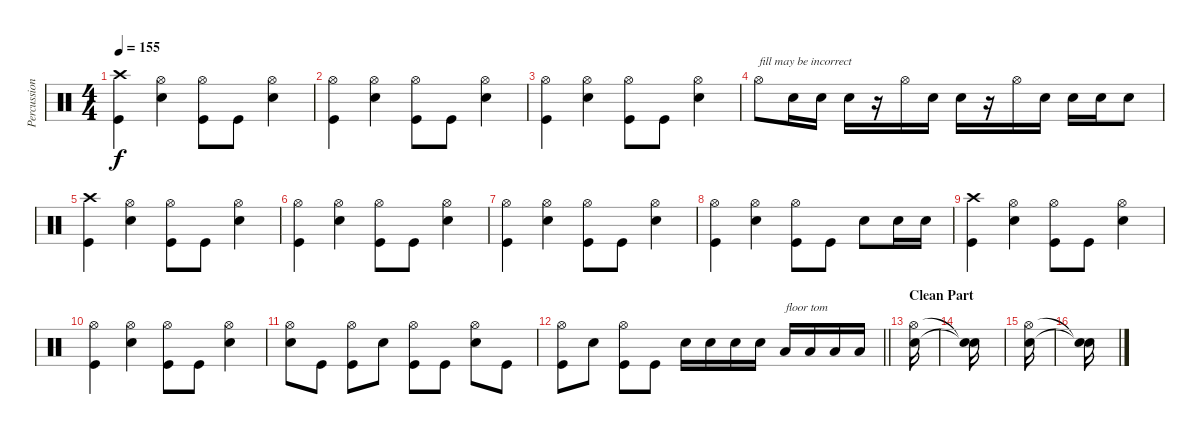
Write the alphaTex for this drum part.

\track ("Percussion" "Percussion") {instrument percussion}
\staff {score}
\articulation defaults
\ts (4 4)
\tempo 155
\clef neutral
\ks c
("Crash high (hit)" "Kick (hit)").4{dy f} ("Hi-Hat (open)" "Electric Snare (hit)").4 ("Hi-Hat (open)" "Kick (hit)").8 "Kick (hit)".8 ("Hi-Hat (open)" "Electric Snare (hit)").4 |
("Hi-Hat (open)" "Kick (hit)").4 ("Hi-Hat (open)" "Electric Snare (hit)").4 ("Hi-Hat (open)" "Kick (hit)").8 "Kick (hit)".8 ("Hi-Hat (open)" "Electric Snare (hit)").4 |
("Hi-Hat (open)" "Kick (hit)").4 ("Hi-Hat (open)" "Electric Snare (hit)").4 ("Hi-Hat (open)" "Kick (hit)").8 "Kick (hit)".8 ("Hi-Hat (open)" "Electric Snare (hit)").4 |
"Hi-Hat (open)".8{txt "fill may be incorrect"} "Electric Snare (hit)".16 "Electric Snare (hit)".16 "Electric Snare (hit)".16 r.16 "Hi-Hat (open)".16 "Electric Snare (hit)".16 "Electric Snare (hit)".16 r.16 "Hi-Hat (open)".16 "Electric Snare (hit)".16 "Electric Snare (hit)".16 "Electric Snare (hit)".16 "Electric Snare (hit)".8 |
("Crash high (hit)" "Kick (hit)").4 ("Hi-Hat (open)" "Electric Snare (hit)").4 ("Hi-Hat (open)" "Kick (hit)").8 "Kick (hit)".8 ("Hi-Hat (open)" "Electric Snare (hit)").4 |
("Hi-Hat (open)" "Kick (hit)").4 ("Hi-Hat (open)" "Electric Snare (hit)").4 ("Hi-Hat (open)" "Kick (hit)").8 "Kick (hit)".8 ("Hi-Hat (open)" "Electric Snare (hit)").4 |
("Hi-Hat (open)" "Kick (hit)").4 ("Hi-Hat (open)" "Electric Snare (hit)").4 ("Hi-Hat (open)" "Kick (hit)").8 "Kick (hit)".8 ("Hi-Hat (open)" "Electric Snare (hit)").4 |
("Hi-Hat (open)" "Kick (hit)").4 ("Hi-Hat (open)" "Electric Snare (hit)").4 ("Hi-Hat (open)" "Kick (hit)").8 "Kick (hit)".8 "Electric Snare (hit)".8 "Electric Snare (hit)".16 "Electric Snare (hit)".16 |
("Crash high (hit)" "Kick (hit)").4 ("Hi-Hat (open)" "Electric Snare (hit)").4 ("Hi-Hat (open)" "Kick (hit)").8 "Kick (hit)".8 ("Hi-Hat (open)" "Electric Snare (hit)").4 |
("Hi-Hat (open)" "Kick (hit)").4 ("Hi-Hat (open)" "Electric Snare (hit)").4 ("Hi-Hat (open)" "Kick (hit)").8 "Kick (hit)".8 ("Hi-Hat (open)" "Electric Snare (hit)").4 |
("Hi-Hat (open)" "Electric Snare (hit)").8 "Kick (hit)".8 ("Hi-Hat (open)" "Kick (hit)").8 "Electric Snare (hit)".8 ("Hi-Hat (open)" "Kick (hit)").8 "Kick (hit)".8 ("Hi-Hat (open)" "Electric Snare (hit)").8 "Kick (hit)".8 |
\barLineRight lightlight
("Hi-Hat (open)" "Kick (hit)").8 "Electric Snare (hit)".8 ("Hi-Hat (open)" "Kick (hit)").8 "Kick (hit)".8 "Electric Snare (hit)".16 "Electric Snare (hit)".16 "Electric Snare (hit)".16 "Electric Snare (hit)".16 "Low Tom (hit)".16{txt "floor tom"} "Low Tom (hit)".16 "Low Tom (hit)".16 "Low Tom (hit)".16 |
\section ("" "Clean Part")
("Hi-Hat (open)" "Electric Snare (hit)").16 |
("Snare (hit)"{t} "Snare (hit)"{t}).16 |
("Hi-Hat (open)" "Electric Snare (hit)").16 |
("Snare (hit)"{t} "Snare (hit)"{t}).16
